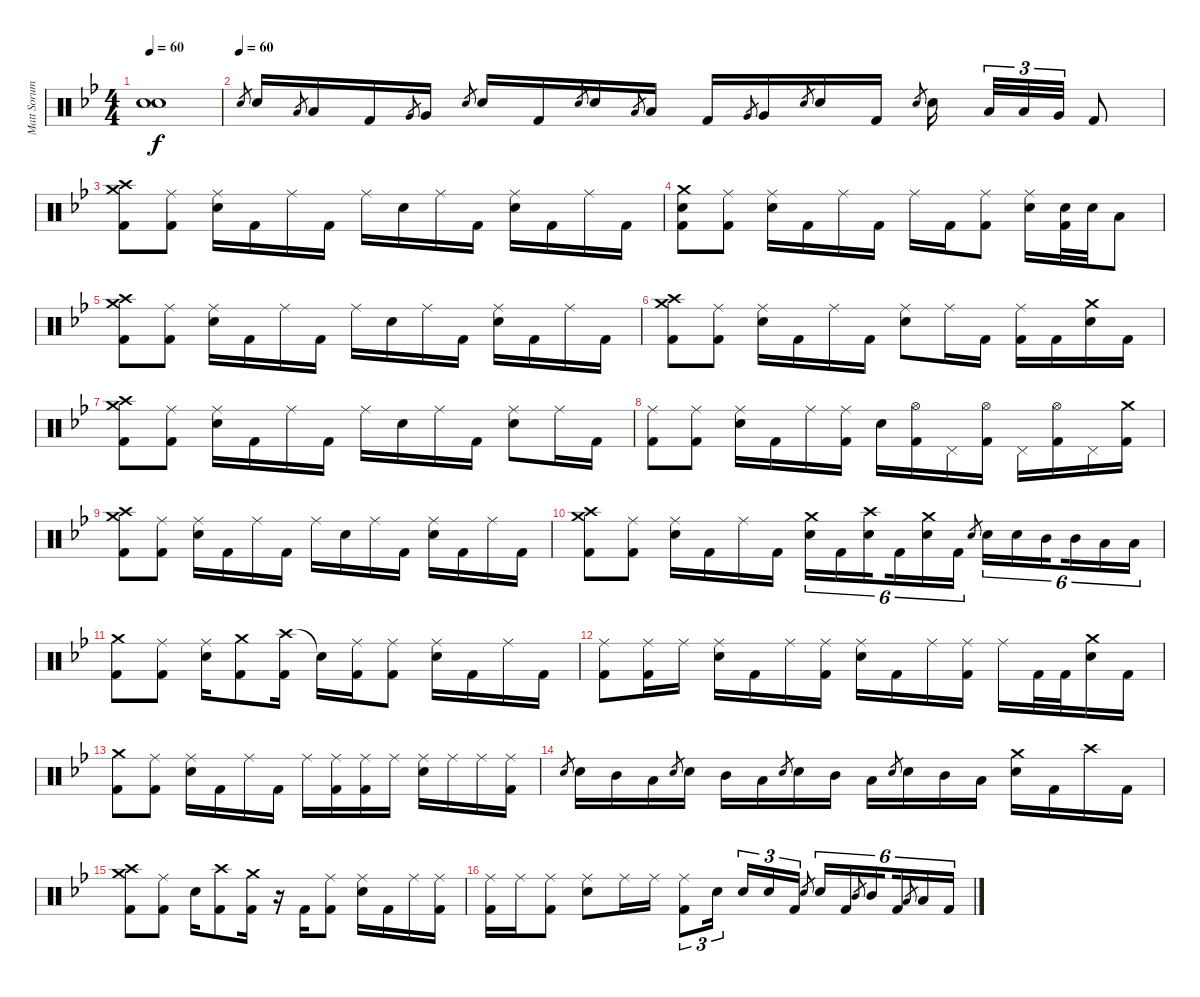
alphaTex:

\track ("Matt Sorum - Drums" "Matt Sorum") {instrument percussion}
\staff {score}
\articulation defaults
\ts (4 4)
\tempo 60
\clef neutral
\ks bb
("Snare (hit)"{t} "Snare (hit)"{t}).1{dy f} |
\tempo (60)
"Snare (hit) 2".8{gr} "Snare (hit) 2".16{volume 16} "Low Tom (hit)".8{gr} "Low Tom (hit)".16 "Kick (hit) 2".16 "Very Low Tom (hit)".8{gr} "Very Low Tom (hit)".16 "Snare (hit) 2".8{gr} "Snare (hit) 2".16 "Kick (hit) 2".16 "Snare (hit) 2".8{gr} "Snare (hit) 2".16 "Low Tom (hit)".8{gr} "Low Tom (hit)".16 "Kick (hit) 2".16 "Very Low Tom (hit)".8{gr} "Very Low Tom (hit)".16 "Snare (hit) 2".8{gr} "Snare (hit) 2".16 "Kick (hit) 2".16 "Snare (hit) 2".8{gr} "Snare (hit) 2".16{beam splitsecondary} "Low Tom (hit)".32{tu (3 2)} "Low Tom (hit)".32{tu (3 2)} "Very Low Tom (hit)".32{tu (3 2)} "Kick (hit) 2".8 |
("Crash medium (hit)" "Crash high (hit)" "Kick (hit) 2").8 ("Ride (middle)" "Kick (hit) 2").8 ("Ride (middle)" "Snare (hit) 2").16 "Kick (hit) 2".16 "Ride (middle)".16 "Kick (hit) 2".16 "Ride (middle)".16 "Snare (hit) 2".16 "Ride (middle)".16 "Kick (hit) 2".16 ("Ride (middle)" "Snare (hit) 2").16 "Kick (hit) 2".16 "Ride (middle)".16 "Kick (hit) 2".16 |
("Crash medium (hit)" "Snare (hit) 2" "Kick (hit) 2").8 ("Ride (middle)" "Kick (hit) 2").8 ("Ride (middle)" "Snare (hit) 2").16 "Kick (hit) 2".16 "Ride (middle)".16 "Kick (hit) 2".16 "Ride (middle)".16 "Kick (hit) 2".16 ("Ride (middle)" "Kick (hit) 2").8 ("Ride (middle)" "Snare (hit) 2").16 ("Snare (hit) 2" "Kick (hit) 2").32 "Snare (hit) 2".32 "Low Tom (hit)".8 |
("Crash medium (hit)" "Crash high (hit)" "Kick (hit) 2").8 ("Ride (middle)" "Kick (hit) 2").8 ("Ride (middle)" "Snare (hit) 2").16 "Kick (hit) 2".16 "Ride (middle)".16 "Kick (hit) 2".16 "Ride (middle)".16 "Snare (hit) 2".16 "Ride (middle)".16 "Kick (hit) 2".16 ("Ride (middle)" "Snare (hit) 2").16 "Kick (hit) 2".16 "Ride (middle)".16 "Kick (hit) 2".16 |
("Crash medium (hit)" "Crash high (hit)" "Kick (hit) 2").8 ("Ride (middle)" "Kick (hit) 2").8 ("Ride (middle)" "Snare (hit) 2").16 "Kick (hit) 2".16 "Ride (middle)".16 "Kick (hit) 2".16 ("Ride (middle)" "Snare (hit) 2").8 "Ride (middle)".16 "Kick (hit) 2".16 ("Ride (middle)" "Kick (hit) 2").16 "Kick (hit) 2".16 ("Crash medium (hit)" "Snare (hit) 2").16 "Kick (hit) 2".16 |
("Crash medium (hit)" "Crash high (hit)" "Kick (hit) 2").8 ("Ride (middle)" "Kick (hit) 2").8 ("Ride (middle)" "Snare (hit) 2").16 "Kick (hit) 2".16 "Ride (middle)".16 "Kick (hit) 2".16 "Ride (middle)".16 "Snare (hit) 2".16 "Ride (middle)".16 "Kick (hit) 2".16 ("Ride (middle)" "Snare (hit) 2").8 "Ride (middle)".16 "Kick (hit) 2".16 |
("Ride (middle)" "Kick (hit) 2").8 ("Ride (middle)" "Kick (hit) 2").8 ("Ride (middle)" "Snare (hit) 2").16 "Kick (hit) 2".16 "Ride (middle)".16 ("Ride (middle)" "Kick (hit) 2").16 "Snare (hit) 2".16 ("Hi-Hat (open)" "Kick (hit) 2").16 "Pedal Hi-Hat (hit)".16 ("Hi-Hat (open)" "Kick (hit) 2").16 "Pedal Hi-Hat (hit)".16 ("Hi-Hat (open)" "Kick (hit) 2").16 "Pedal Hi-Hat (hit)".16 ("Crash medium (hit)" "Kick (hit) 2").16 |
("Crash medium (hit)" "Crash high (hit)" "Kick (hit) 2").8 ("Ride (middle)" "Kick (hit) 2").8 ("Ride (middle)" "Snare (hit) 2").16 "Kick (hit) 2".16 "Ride (middle)".16 "Kick (hit) 2".16 "Ride (middle)".16 "Snare (hit) 2".16 "Ride (middle)".16 "Kick (hit) 2".16 ("Ride (middle)" "Snare (hit) 2").16 "Kick (hit) 2".16 "Ride (middle)".16 "Kick (hit) 2".16 |
("Crash medium (hit)" "Crash high (hit)" "Kick (hit) 2").8 ("Ride (middle)" "Kick (hit) 2").8 ("Ride (middle)" "Snare (hit) 2").16 "Kick (hit) 2".16 "Ride (middle)".16 "Kick (hit) 2".16 ("Crash medium (hit)" "Snare (hit) 2").16{tu (6 4)} "Kick (hit) 2".16{tu (6 4)} ("Crash high (hit)" "Snare (hit) 2").16{tu (6 4) beam splitsecondary} "Kick (hit) 2".16{tu (6 4)} ("Crash medium (hit)" "Snare (hit) 2").16{tu (6 4)} "Kick (hit) 2".16{tu (6 4)} "Snare (hit) 2".8{gr} "Snare (hit) 2".16{tu (6 4)} "Snare (hit) 2".16{tu (6 4)} "Mid Tom (hit)".16{tu (6 4) beam splitsecondary} "Mid Tom (hit)".16{tu (6 4)} "Low Tom (hit)".16{tu (6 4)} "Low Tom (hit)".16{tu (6 4)} |
("Crash medium (hit)" "Kick (hit) 2").8 ("Ride (middle)" "Kick (hit) 2").8 ("Ride (middle)" "Snare (hit) 2").16 ("Crash medium (hit)" "Kick (hit) 2").8 ("Crash high (hit)" "Kick (hit) 2").16 "Snare (hit)"{t}.16 ("Ride (middle)" "Kick (hit) 2").16 ("Ride (middle)" "Kick (hit) 2").8 ("Ride (middle)" "Snare (hit) 2").16 "Kick (hit) 2".16 "Ride (middle)".16 "Kick (hit) 2".16 |
("Ride (middle)" "Kick (hit) 2").8 ("Ride (middle)" "Kick (hit) 2").16 "Ride (middle)".16 ("Ride (middle)" "Snare (hit) 2").16 "Kick (hit) 2".16 "Ride (middle)".16 ("Ride (middle)" "Kick (hit) 2").16 ("Ride (middle)" "Snare (hit) 2").16 "Kick (hit) 2".16 "Ride (middle)".16 ("Ride (middle)" "Kick (hit) 2").16 "Ride (middle)".16 "Kick (hit) 2".32 "Kick (hit) 2".32 ("Crash medium (hit)" "Snare (hit) 2").16 "Kick (hit) 2".16 |
("Crash medium (hit)" "Kick (hit) 2").8 ("Ride (middle)" "Kick (hit) 2").8 ("Ride (middle)" "Snare (hit) 2").16 "Kick (hit) 2".16 "Ride (middle)".16 "Kick (hit) 2".16 "Ride (middle)".16 ("Ride (middle)" "Kick (hit) 2").16 ("Ride (middle)" "Kick (hit) 2").16 "Ride (middle)".16 ("Ride (middle)" "Snare (hit) 2").16 "Ride (middle)".16 "Ride (middle)".16 ("Ride (middle)" "Kick (hit) 2").16 |
"Snare (hit) 2".8{gr} "Snare (hit) 2".16 "Mid Tom (hit)".16 "Low Tom (hit)".16 "Snare (hit) 2".8{gr} "Snare (hit) 2".16 "Mid Tom (hit)".16 "Low Tom (hit)".16 "Snare (hit) 2".8{gr} "Snare (hit) 2".16 "Mid Tom (hit)".16 "Low Tom (hit)".16 "Snare (hit) 2".8{gr} "Snare (hit) 2".16 "Mid Tom (hit)".16 "Low Tom (hit)".16 ("Crash medium (hit)" "Snare (hit) 2").16 "Kick (hit) 2".16 "Crash high (hit)".16 "Kick (hit) 2".16 |
("Crash medium (hit)" "Crash high (hit)" "Kick (hit) 2").8 ("Ride (middle)" "Kick (hit) 2").8 "Snare (hit) 2".16 ("Crash high (hit)" "Kick (hit) 2").8 ("Crash medium (hit)" "Kick (hit) 2").16 r.16 "Kick (hit) 2".16 ("Ride (middle)" "Kick (hit) 2").8 ("Ride (middle)" "Snare (hit) 2").16 "Kick (hit) 2".16 "Ride (middle)".16 ("Ride (middle)" "Kick (hit) 2").16 |
("Ride (middle)" "Kick (hit) 2").16 "Ride (middle)".16 ("Ride (middle)" "Kick (hit) 2").8 ("Ride (middle)" "Snare (hit) 2").8 "Ride (middle)".16 "Ride (middle)".16 ("Ride (middle)" "Kick (hit) 2").8{tu (3 2)} "Snare (hit) 2".16{tu (3 2) beam splitsecondary} "Snare (hit) 2".16{tu (3 2)} "Snare (hit) 2".16{tu (3 2)} "Kick (hit) 2".16{tu (3 2)} "Snare (hit) 2".8{gr} "Snare (hit) 2".16{tu (6 4)} "Kick (hit) 2".16{tu (6 4)} "Mid Tom (hit)".8{gr} "Mid Tom (hit)".16{tu (6 4) beam splitsecondary} "Kick (hit) 2".16{tu (6 4)} "Low Tom (hit)".8{gr} "Low Tom (hit)".16{tu (6 4)} "Kick (hit) 2".16{tu (6 4)}
